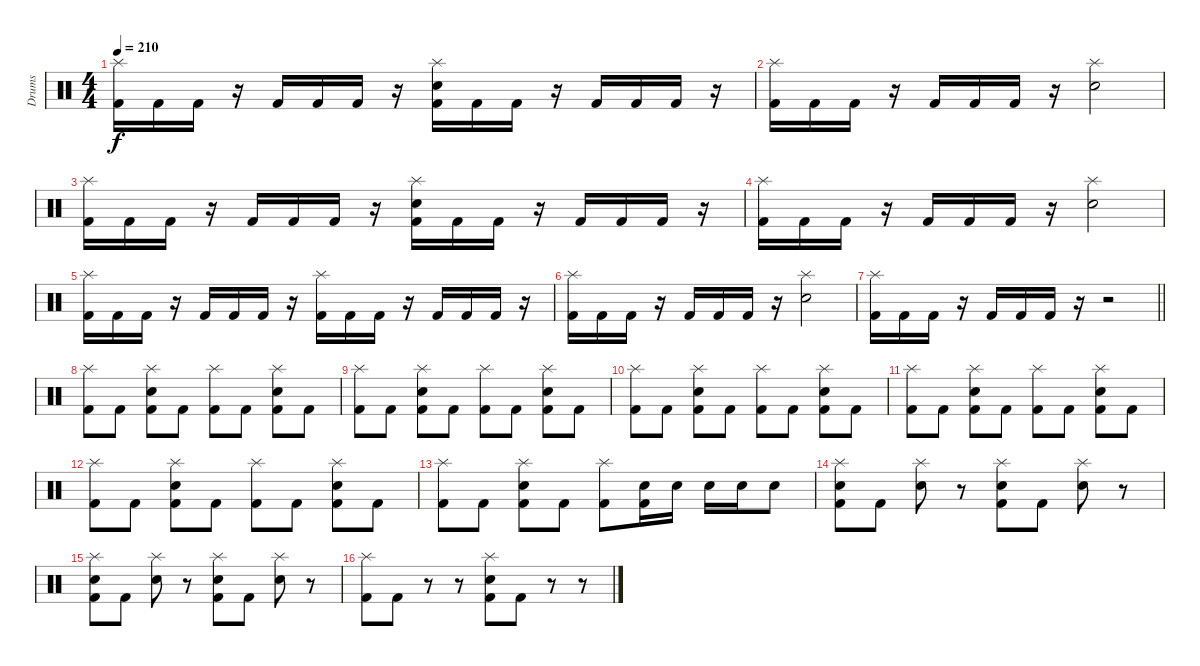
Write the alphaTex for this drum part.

\track ("Drums" "Drums") {instrument percussion}
\staff {score}
\articulation defaults
\ts (4 4)
\tempo 210
\clef neutral
\ks c
("Splash (hit)" "Kick (hit) 2").16{dy f} "Kick (hit) 2".16 "Kick (hit) 2".16 r.16 "Kick (hit) 2".16 "Kick (hit) 2".16 "Kick (hit) 2".16 r.16 ("Splash (hit)" "Snare (hit) 2" "Kick (hit) 2").16 "Kick (hit) 2".16 "Kick (hit) 2".16 r.16 "Kick (hit) 2".16 "Kick (hit) 2".16 "Kick (hit) 2".16 r.16 |
("Splash (hit)" "Kick (hit) 2").16 "Kick (hit) 2".16 "Kick (hit) 2".16 r.16 "Kick (hit) 2".16 "Kick (hit) 2".16 "Kick (hit) 2".16 r.16 ("Splash (hit)" "Snare (hit) 2").2 |
("Splash (hit)" "Kick (hit) 2").16 "Kick (hit) 2".16 "Kick (hit) 2".16 r.16 "Kick (hit) 2".16 "Kick (hit) 2".16 "Kick (hit) 2".16 r.16 ("Splash (hit)" "Snare (hit) 2" "Kick (hit) 2").16 "Kick (hit) 2".16 "Kick (hit) 2".16 r.16 "Kick (hit) 2".16 "Kick (hit) 2".16 "Kick (hit) 2".16 r.16 |
("Splash (hit)" "Kick (hit) 2").16 "Kick (hit) 2".16 "Kick (hit) 2".16 r.16 "Kick (hit) 2".16 "Kick (hit) 2".16 "Kick (hit) 2".16 r.16 ("Splash (hit)" "Snare (hit) 2").2 |
("Splash (hit)" "Kick (hit) 2").16 "Kick (hit) 2".16 "Kick (hit) 2".16 r.16 "Kick (hit) 2".16 "Kick (hit) 2".16 "Kick (hit) 2".16 r.16 ("Splash (hit)" "Kick (hit) 2").16 "Kick (hit) 2".16 "Kick (hit) 2".16 r.16 "Kick (hit) 2".16 "Kick (hit) 2".16 "Kick (hit) 2".16 r.16 |
("Splash (hit)" "Kick (hit) 2").16 "Kick (hit) 2".16 "Kick (hit) 2".16 r.16 "Kick (hit) 2".16 "Kick (hit) 2".16 "Kick (hit) 2".16 r.16 ("Splash (hit)" "Snare (hit) 2").2 |
\barLineRight lightlight
("Splash (hit)" "Kick (hit) 2").16 "Kick (hit) 2".16 "Kick (hit) 2".16 r.16 "Kick (hit) 2".16 "Kick (hit) 2".16 "Kick (hit) 2".16 r.16 r.2 |
("Splash (hit)" "Kick (hit) 2").8 "Kick (hit) 2".8 ("Splash (hit)" "Snare (hit) 2" "Kick (hit) 2").8 "Kick (hit) 2".8 ("Splash (hit)" "Kick (hit) 2").8 "Kick (hit) 2".8 ("Splash (hit)" "Snare (hit) 2" "Kick (hit) 2").8 "Kick (hit) 2".8 |
("Splash (hit)" "Kick (hit) 2").8 "Kick (hit) 2".8 ("Splash (hit)" "Snare (hit) 2" "Kick (hit) 2").8 "Kick (hit) 2".8 ("Splash (hit)" "Kick (hit) 2").8 "Kick (hit) 2".8 ("Splash (hit)" "Snare (hit) 2" "Kick (hit) 2").8 "Kick (hit) 2".8 |
("Splash (hit)" "Kick (hit) 2").8 "Kick (hit) 2".8 ("Splash (hit)" "Snare (hit) 2" "Kick (hit) 2").8 "Kick (hit) 2".8 ("Splash (hit)" "Kick (hit) 2").8 "Kick (hit) 2".8 ("Splash (hit)" "Snare (hit) 2" "Kick (hit) 2").8 "Kick (hit) 2".8 |
("Splash (hit)" "Kick (hit) 2").8 "Kick (hit) 2".8 ("Splash (hit)" "Snare (hit) 2" "Kick (hit) 2").8 "Kick (hit) 2".8 ("Splash (hit)" "Kick (hit) 2").8 "Kick (hit) 2".8 ("Splash (hit)" "Snare (hit) 2" "Kick (hit) 2").8 "Kick (hit) 2".8 |
("Splash (hit)" "Kick (hit) 2").8 "Kick (hit) 2".8 ("Splash (hit)" "Snare (hit) 2" "Kick (hit) 2").8 "Kick (hit) 2".8 ("Splash (hit)" "Kick (hit) 2").8 "Kick (hit) 2".8 ("Splash (hit)" "Snare (hit) 2" "Kick (hit) 2").8 "Kick (hit) 2".8 |
("Splash (hit)" "Kick (hit) 2").8 "Kick (hit) 2".8 ("Splash (hit)" "Snare (hit) 2" "Kick (hit) 2").8 "Kick (hit) 2".8 ("Splash (hit)" "Kick (hit) 2").8 ("Snare (hit) 2" "Kick (hit) 2").16 "Snare (hit) 2".16 "Snare (hit) 2".16 "Snare (hit) 2".16 "Snare (hit) 2".8 |
("Splash (hit)" "Snare (hit) 2" "Kick (hit) 2").8 "Kick (hit) 2".8 ("Splash (hit)" "Snare (hit) 2").8 r.8 ("Splash (hit)" "Snare (hit) 2" "Kick (hit) 2").8 "Kick (hit) 2".8 ("Splash (hit)" "Snare (hit) 2").8 r.8 |
("Splash (hit)" "Snare (hit) 2" "Kick (hit) 2").8 "Kick (hit) 2".8 ("Splash (hit)" "Snare (hit) 2").8 r.8 ("Splash (hit)" "Snare (hit) 2" "Kick (hit) 2").8 "Kick (hit) 2".8 ("Splash (hit)" "Snare (hit) 2").8 r.8 |
("Splash (hit)" "Kick (hit) 2").8 "Kick (hit) 2".8 r.8 r.8 ("Splash (hit)" "Snare (hit) 2" "Kick (hit) 2").8 "Kick (hit) 2".8 r.8 r.8
